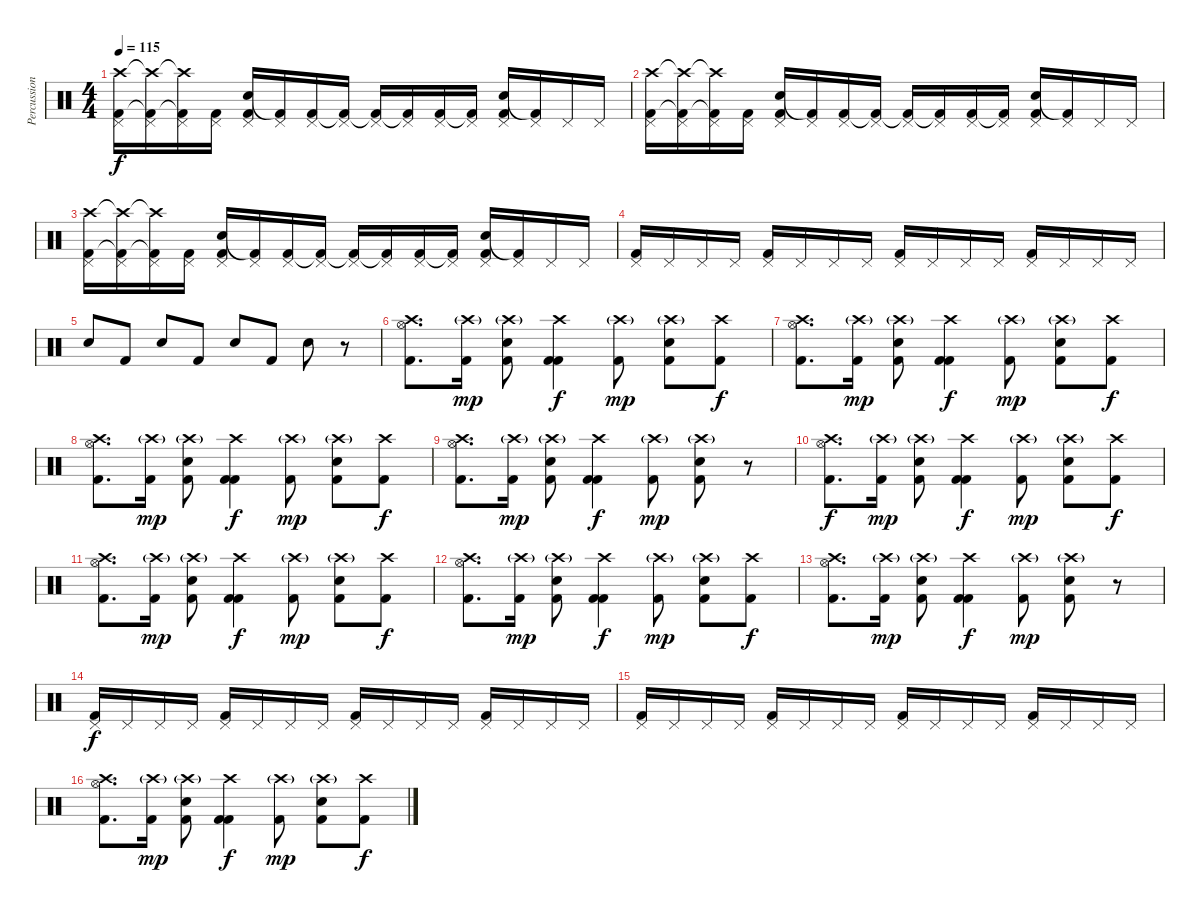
\track ("Percussion" "Percussion") {instrument percussion}
\staff {score}
\articulation defaults
\ts (4 4)
\tempo 115
\clef neutral
\ks c
("Crash high (hit)" "Pedal Hi-Hat (hit)" "Kick (hit) 2").16{dy f} ("Crash high (hit)"{t} "Pedal Hi-Hat (hit)" "Kick (hit) 2"{t}).16 ("Crash high (hit)"{t} "Pedal Hi-Hat (hit)" "Kick (hit) 2"{t}).16 ("Pedal Hi-Hat (hit)" "Kick (hit) 2").16 ("Pedal Hi-Hat (hit)" "Snare (hit) 2" "Kick (hit) 2").16 ("Pedal Hi-Hat (hit)" "Kick (hit) 2"{t}).16 ("Pedal Hi-Hat (hit)" "Kick (hit) 2").16 ("Pedal Hi-Hat (hit)" "Kick (hit) 2"{t}).16 ("Pedal Hi-Hat (hit)" "Kick (hit) 2"{t}).16 ("Pedal Hi-Hat (hit)" "Kick (hit) 2"{t}).16 ("Pedal Hi-Hat (hit)" "Kick (hit) 2").16 ("Pedal Hi-Hat (hit)" "Kick (hit) 2"{t}).16 ("Pedal Hi-Hat (hit)" "Snare (hit) 2" "Kick (hit) 2").16 ("Pedal Hi-Hat (hit)" "Kick (hit) 2"{t}).16 "Pedal Hi-Hat (hit)".16 "Pedal Hi-Hat (hit)".16 |
("Crash high (hit)" "Pedal Hi-Hat (hit)" "Kick (hit) 2").16 ("Crash high (hit)"{t} "Pedal Hi-Hat (hit)" "Kick (hit) 2"{t}).16 ("Crash high (hit)"{t} "Pedal Hi-Hat (hit)" "Kick (hit) 2"{t}).16 ("Pedal Hi-Hat (hit)" "Kick (hit) 2").16 ("Pedal Hi-Hat (hit)" "Snare (hit) 2" "Kick (hit) 2").16 ("Pedal Hi-Hat (hit)" "Kick (hit) 2"{t}).16 ("Pedal Hi-Hat (hit)" "Kick (hit) 2").16 ("Pedal Hi-Hat (hit)" "Kick (hit) 2"{t}).16 ("Pedal Hi-Hat (hit)" "Kick (hit) 2"{t}).16 ("Pedal Hi-Hat (hit)" "Kick (hit) 2"{t}).16 ("Pedal Hi-Hat (hit)" "Kick (hit) 2").16 ("Pedal Hi-Hat (hit)" "Kick (hit) 2"{t}).16 ("Pedal Hi-Hat (hit)" "Snare (hit) 2" "Kick (hit) 2").16 ("Pedal Hi-Hat (hit)" "Kick (hit) 2"{t}).16 "Pedal Hi-Hat (hit)".16 "Pedal Hi-Hat (hit)".16 |
("Crash high (hit)" "Pedal Hi-Hat (hit)" "Kick (hit) 2").16 ("Crash high (hit)"{t} "Pedal Hi-Hat (hit)" "Kick (hit) 2"{t}).16 ("Crash high (hit)"{t} "Pedal Hi-Hat (hit)" "Kick (hit) 2"{t}).16 ("Pedal Hi-Hat (hit)" "Kick (hit) 2").16 ("Pedal Hi-Hat (hit)" "Snare (hit) 2" "Kick (hit) 2").16 ("Pedal Hi-Hat (hit)" "Kick (hit) 2"{t}).16 ("Pedal Hi-Hat (hit)" "Kick (hit) 2").16 ("Pedal Hi-Hat (hit)" "Kick (hit) 2"{t}).16 ("Pedal Hi-Hat (hit)" "Kick (hit) 2"{t}).16 ("Pedal Hi-Hat (hit)" "Kick (hit) 2"{t}).16 ("Pedal Hi-Hat (hit)" "Kick (hit) 2").16 ("Pedal Hi-Hat (hit)" "Kick (hit) 2"{t}).16 ("Pedal Hi-Hat (hit)" "Snare (hit) 2" "Kick (hit) 2").16 ("Pedal Hi-Hat (hit)" "Kick (hit) 2"{t}).16 "Pedal Hi-Hat (hit)".16 "Pedal Hi-Hat (hit)".16 |
("Pedal Hi-Hat (hit)" "Kick (hit) 2").16 "Pedal Hi-Hat (hit)".16 "Pedal Hi-Hat (hit)".16 "Pedal Hi-Hat (hit)".16 ("Pedal Hi-Hat (hit)" "Kick (hit) 2").16 "Pedal Hi-Hat (hit)".16 "Pedal Hi-Hat (hit)".16 "Pedal Hi-Hat (hit)".16 ("Pedal Hi-Hat (hit)" "Kick (hit) 2").16 "Pedal Hi-Hat (hit)".16 "Pedal Hi-Hat (hit)".16 "Pedal Hi-Hat (hit)".16 ("Pedal Hi-Hat (hit)" "Kick (hit) 2").16 "Pedal Hi-Hat (hit)".16 "Pedal Hi-Hat (hit)".16 "Pedal Hi-Hat (hit)".16 |
"Snare (hit) 2".8 "Kick (hit) 2".8 "Snare (hit) 2".8 "Kick (hit) 2".8 "Snare (hit) 2".8 "Kick (hit) 2".8 "Snare (hit) 2".8 r.8 |
("Crash high (hit)" "Hi-Hat (open)" "Kick (hit) 2").8{d} ("Crash high (hit)"{g} "Kick (hit) 2").16{dy mp} ("Crash high (hit)"{g} "Snare (hit) 2" "Kick (hit) 2").8 ("Crash high (hit)" "Kick (hit) 2" "Kick (hit) 2").4{dy f} ("Crash high (hit)"{g} "Kick (hit) 2").8{dy mp} ("Crash high (hit)"{g} "Snare (hit) 2" "Kick (hit) 2").8 ("Crash high (hit)" "Kick (hit) 2").8{dy f} |
("Crash high (hit)" "Hi-Hat (open)" "Kick (hit) 2").8{d} ("Crash high (hit)"{g} "Kick (hit) 2").16{dy mp} ("Crash high (hit)"{g} "Snare (hit) 2" "Kick (hit) 2").8 ("Crash high (hit)" "Kick (hit) 2" "Kick (hit) 2").4{dy f} ("Crash high (hit)"{g} "Kick (hit) 2").8{dy mp} ("Crash high (hit)"{g} "Snare (hit) 2" "Kick (hit) 2").8 ("Crash high (hit)" "Kick (hit) 2").8{dy f} |
("Crash high (hit)" "Hi-Hat (open)" "Kick (hit) 2").8{d} ("Crash high (hit)"{g} "Kick (hit) 2").16{dy mp} ("Crash high (hit)"{g} "Snare (hit) 2" "Kick (hit) 2").8 ("Crash high (hit)" "Kick (hit) 2" "Kick (hit) 2").4{dy f} ("Crash high (hit)"{g} "Kick (hit) 2").8{dy mp} ("Crash high (hit)"{g} "Snare (hit) 2" "Kick (hit) 2").8 ("Crash high (hit)" "Kick (hit) 2").8{dy f} |
("Crash high (hit)" "Hi-Hat (open)" "Kick (hit) 2").8{d} ("Crash high (hit)"{g} "Kick (hit) 2").16{dy mp} ("Crash high (hit)"{g} "Snare (hit) 2" "Kick (hit) 2").8 ("Crash high (hit)" "Kick (hit) 2" "Kick (hit) 2").4{dy f} ("Crash high (hit)"{g} "Kick (hit) 2").8{dy mp} ("Crash high (hit)"{g} "Snare (hit) 2" "Kick (hit) 2").8 r.8 |
("Crash high (hit)" "Hi-Hat (open)" "Kick (hit) 2").8{d dy f} ("Crash high (hit)"{g} "Kick (hit) 2").16{dy mp} ("Crash high (hit)"{g} "Snare (hit) 2" "Kick (hit) 2").8 ("Crash high (hit)" "Kick (hit) 2" "Kick (hit) 2").4{dy f} ("Crash high (hit)"{g} "Kick (hit) 2").8{dy mp} ("Crash high (hit)"{g} "Snare (hit) 2" "Kick (hit) 2").8 ("Crash high (hit)" "Kick (hit) 2").8{dy f} |
("Crash high (hit)" "Hi-Hat (open)" "Kick (hit) 2").8{d} ("Crash high (hit)"{g} "Kick (hit) 2").16{dy mp} ("Crash high (hit)"{g} "Snare (hit) 2" "Kick (hit) 2").8 ("Crash high (hit)" "Kick (hit) 2" "Kick (hit) 2").4{dy f} ("Crash high (hit)"{g} "Kick (hit) 2").8{dy mp} ("Crash high (hit)"{g} "Snare (hit) 2" "Kick (hit) 2").8 ("Crash high (hit)" "Kick (hit) 2").8{dy f} |
("Crash high (hit)" "Hi-Hat (open)" "Kick (hit) 2").8{d} ("Crash high (hit)"{g} "Kick (hit) 2").16{dy mp} ("Crash high (hit)"{g} "Snare (hit) 2" "Kick (hit) 2").8 ("Crash high (hit)" "Kick (hit) 2" "Kick (hit) 2").4{dy f} ("Crash high (hit)"{g} "Kick (hit) 2").8{dy mp} ("Crash high (hit)"{g} "Snare (hit) 2" "Kick (hit) 2").8 ("Crash high (hit)" "Kick (hit) 2").8{dy f} |
("Crash high (hit)" "Hi-Hat (open)" "Kick (hit) 2").8{d} ("Crash high (hit)"{g} "Kick (hit) 2").16{dy mp} ("Crash high (hit)"{g} "Snare (hit) 2" "Kick (hit) 2").8 ("Crash high (hit)" "Kick (hit) 2" "Kick (hit) 2").4{dy f} ("Crash high (hit)"{g} "Kick (hit) 2").8{dy mp} ("Crash high (hit)"{g} "Snare (hit) 2" "Kick (hit) 2").8 r.8 |
("Pedal Hi-Hat (hit)" "Kick (hit) 2").16{dy f} "Pedal Hi-Hat (hit)".16 "Pedal Hi-Hat (hit)".16 "Pedal Hi-Hat (hit)".16 ("Pedal Hi-Hat (hit)" "Kick (hit) 2").16 "Pedal Hi-Hat (hit)".16 "Pedal Hi-Hat (hit)".16 "Pedal Hi-Hat (hit)".16 ("Pedal Hi-Hat (hit)" "Kick (hit) 2").16 "Pedal Hi-Hat (hit)".16 "Pedal Hi-Hat (hit)".16 "Pedal Hi-Hat (hit)".16 ("Pedal Hi-Hat (hit)" "Kick (hit) 2").16 "Pedal Hi-Hat (hit)".16 "Pedal Hi-Hat (hit)".16 "Pedal Hi-Hat (hit)".16 |
("Pedal Hi-Hat (hit)" "Kick (hit) 2").16 "Pedal Hi-Hat (hit)".16 "Pedal Hi-Hat (hit)".16 "Pedal Hi-Hat (hit)".16 ("Pedal Hi-Hat (hit)" "Kick (hit) 2").16 "Pedal Hi-Hat (hit)".16 "Pedal Hi-Hat (hit)".16 "Pedal Hi-Hat (hit)".16 ("Pedal Hi-Hat (hit)" "Kick (hit) 2").16 "Pedal Hi-Hat (hit)".16 "Pedal Hi-Hat (hit)".16 "Pedal Hi-Hat (hit)".16 ("Pedal Hi-Hat (hit)" "Kick (hit) 2").16 "Pedal Hi-Hat (hit)".16 "Pedal Hi-Hat (hit)".16 "Pedal Hi-Hat (hit)".16 |
("Crash high (hit)" "Hi-Hat (open)" "Kick (hit) 2").8{d} ("Crash high (hit)"{g} "Kick (hit) 2").16{dy mp} ("Crash high (hit)"{g} "Snare (hit) 2" "Kick (hit) 2").8 ("Crash high (hit)" "Kick (hit) 2" "Kick (hit) 2").4{dy f} ("Crash high (hit)"{g} "Kick (hit) 2").8{dy mp} ("Crash high (hit)"{g} "Snare (hit) 2" "Kick (hit) 2").8 ("Crash high (hit)" "Kick (hit) 2").8{dy f}
